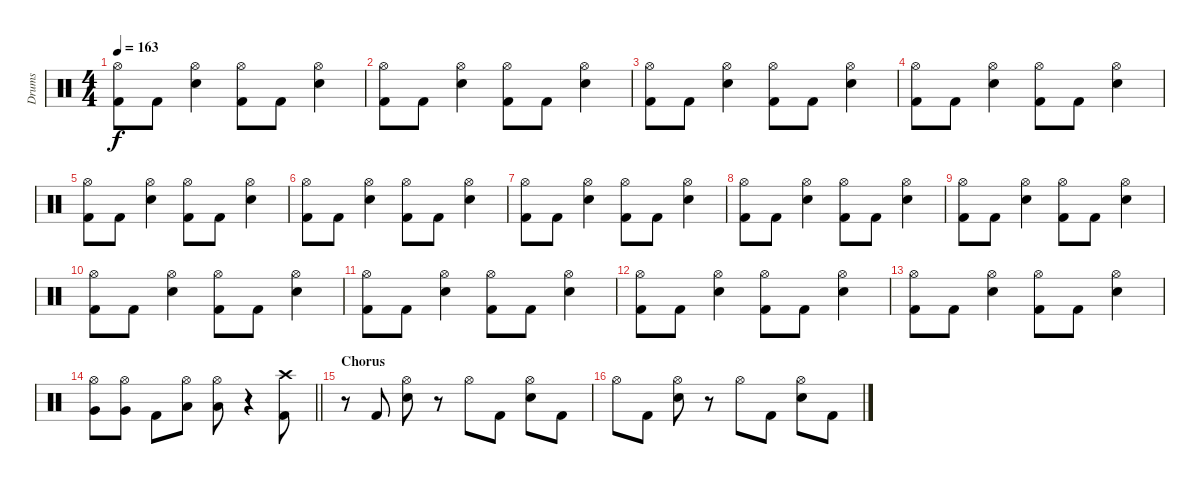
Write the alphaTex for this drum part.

\track ("Drums" "Drums") {instrument percussion}
\staff {score}
\articulation defaults
\ts (4 4)
\tempo 163
\clef neutral
\ks c
("Hi-Hat (open)" "Kick (hit) 2").8{dy f} "Kick (hit) 2".8 ("Hi-Hat (open)" "Snare (hit) 2").4 ("Hi-Hat (open)" "Kick (hit) 2").8 "Kick (hit) 2".8 ("Hi-Hat (open)" "Snare (hit) 2").4 |
("Hi-Hat (open)" "Kick (hit) 2").8 "Kick (hit) 2".8 ("Hi-Hat (open)" "Snare (hit) 2").4 ("Hi-Hat (open)" "Kick (hit) 2").8 "Kick (hit) 2".8 ("Hi-Hat (open)" "Snare (hit) 2").4 |
("Hi-Hat (open)" "Kick (hit) 2").8 "Kick (hit) 2".8 ("Hi-Hat (open)" "Snare (hit) 2").4 ("Hi-Hat (open)" "Kick (hit) 2").8 "Kick (hit) 2".8 ("Hi-Hat (open)" "Snare (hit) 2").4 |
("Hi-Hat (open)" "Kick (hit) 2").8 "Kick (hit) 2".8 ("Hi-Hat (open)" "Snare (hit) 2").4 ("Hi-Hat (open)" "Kick (hit) 2").8 "Kick (hit) 2".8 ("Hi-Hat (open)" "Snare (hit) 2").4 |
("Hi-Hat (open)" "Kick (hit) 2").8 "Kick (hit) 2".8 ("Hi-Hat (open)" "Snare (hit) 2").4 ("Hi-Hat (open)" "Kick (hit) 2").8 "Kick (hit) 2".8 ("Hi-Hat (open)" "Snare (hit) 2").4 |
("Hi-Hat (open)" "Kick (hit) 2").8 "Kick (hit) 2".8 ("Hi-Hat (open)" "Snare (hit) 2").4 ("Hi-Hat (open)" "Kick (hit) 2").8 "Kick (hit) 2".8 ("Hi-Hat (open)" "Snare (hit) 2").4 |
("Hi-Hat (open)" "Kick (hit) 2").8 "Kick (hit) 2".8 ("Hi-Hat (open)" "Snare (hit) 2").4 ("Hi-Hat (open)" "Kick (hit) 2").8 "Kick (hit) 2".8 ("Hi-Hat (open)" "Snare (hit) 2").4 |
("Hi-Hat (open)" "Kick (hit) 2").8 "Kick (hit) 2".8 ("Hi-Hat (open)" "Snare (hit) 2").4 ("Hi-Hat (open)" "Kick (hit) 2").8 "Kick (hit) 2".8 ("Hi-Hat (open)" "Snare (hit) 2").4 |
("Hi-Hat (open)" "Kick (hit) 2").8 "Kick (hit) 2".8 ("Hi-Hat (open)" "Snare (hit) 2").4 ("Hi-Hat (open)" "Kick (hit) 2").8 "Kick (hit) 2".8 ("Hi-Hat (open)" "Snare (hit) 2").4 |
("Hi-Hat (open)" "Kick (hit) 2").8 "Kick (hit) 2".8 ("Hi-Hat (open)" "Snare (hit) 2").4 ("Hi-Hat (open)" "Kick (hit) 2").8 "Kick (hit) 2".8 ("Hi-Hat (open)" "Snare (hit) 2").4 |
("Hi-Hat (open)" "Kick (hit) 2").8 "Kick (hit) 2".8 ("Hi-Hat (open)" "Snare (hit) 2").4 ("Hi-Hat (open)" "Kick (hit) 2").8 "Kick (hit) 2".8 ("Hi-Hat (open)" "Snare (hit) 2").4 |
("Hi-Hat (open)" "Kick (hit) 2").8 "Kick (hit) 2".8 ("Hi-Hat (open)" "Snare (hit) 2").4 ("Hi-Hat (open)" "Kick (hit) 2").8 "Kick (hit) 2".8 ("Hi-Hat (open)" "Snare (hit) 2").4 |
("Hi-Hat (open)" "Kick (hit) 2").8 "Kick (hit) 2".8 ("Hi-Hat (open)" "Snare (hit) 2").4 ("Hi-Hat (open)" "Kick (hit) 2").8 "Kick (hit) 2".8 ("Hi-Hat (open)" "Snare (hit) 2").4 |
\barLineRight lightlight
("Hi-Hat (open)" "Very Low Tom (hit)").8 ("Hi-Hat (open)" "Very Low Tom (hit)").8 "Kick (hit) 2".8 ("Hi-Hat (open)" "Low Tom (hit)").8 ("Hi-Hat (open)" "Low Tom (hit)").8 r.4 ("Crash high (hit)" "Kick (hit) 2").8 |
\section ("" "Chorus")
r.8 "Kick (hit) 2".8 ("Hi-Hat (open)" "Snare (hit) 2").8 r.8 "Hi-Hat (open)".8 "Kick (hit) 2".8 ("Hi-Hat (open)" "Snare (hit) 2").8 "Kick (hit) 2".8 |
"Hi-Hat (open)".8 "Kick (hit) 2".8 ("Hi-Hat (open)" "Snare (hit) 2").8 r.8 "Hi-Hat (open)".8 "Kick (hit) 2".8 ("Hi-Hat (open)" "Snare (hit) 2").8 "Kick (hit) 2".8
